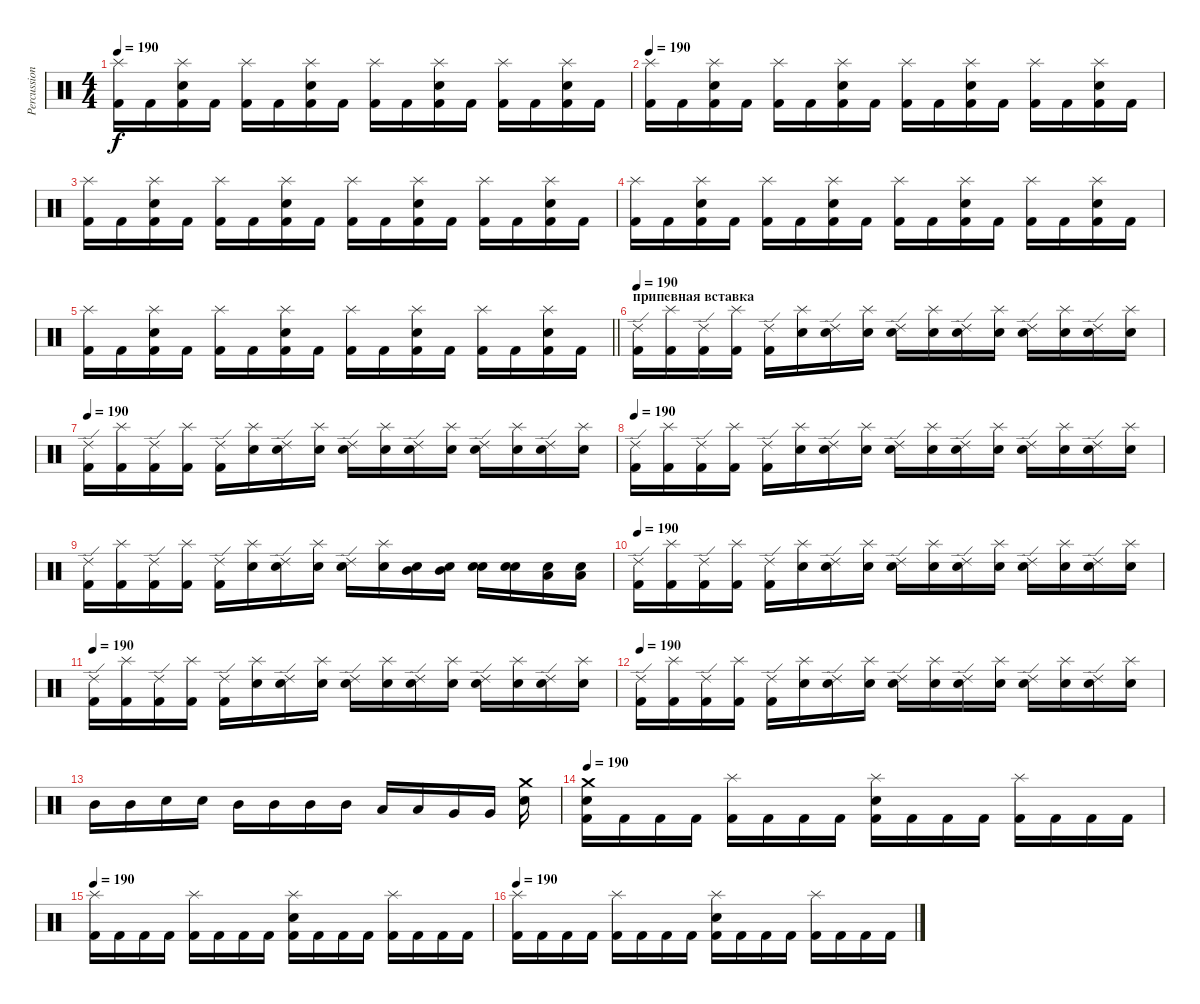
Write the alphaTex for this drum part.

\track ("Percussion" "Percussion") {instrument percussion}
\staff {score}
\articulation defaults
\ts (4 4)
\tempo 190
\clef neutral
\ks c
("Splash (hit)" "Kick (hit) 2").16{dy f} "Kick (hit) 2".16 ("Splash (hit)" "Kick (hit) 2" "Electric Snare (hit)").16 "Kick (hit) 2".16 ("Splash (hit)" "Kick (hit) 2").16 "Kick (hit) 2".16 ("Splash (hit)" "Kick (hit) 2" "Electric Snare (hit)").16 "Kick (hit) 2".16 ("Splash (hit)" "Kick (hit) 2").16 "Kick (hit) 2".16 ("Splash (hit)" "Kick (hit) 2" "Electric Snare (hit)").16 "Kick (hit) 2".16 ("Splash (hit)" "Kick (hit) 2").16 "Kick (hit) 2".16 ("Splash (hit)" "Kick (hit) 2" "Electric Snare (hit)").16 "Kick (hit) 2".16 |
\tempo 190
("Splash (hit)" "Kick (hit) 2").16 "Kick (hit) 2".16 ("Splash (hit)" "Kick (hit) 2" "Electric Snare (hit)").16 "Kick (hit) 2".16 ("Splash (hit)" "Kick (hit) 2").16 "Kick (hit) 2".16 ("Splash (hit)" "Kick (hit) 2" "Electric Snare (hit)").16 "Kick (hit) 2".16 ("Splash (hit)" "Kick (hit) 2").16 "Kick (hit) 2".16 ("Splash (hit)" "Kick (hit) 2" "Electric Snare (hit)").16 "Kick (hit) 2".16 ("Splash (hit)" "Kick (hit) 2").16 "Kick (hit) 2".16 ("Splash (hit)" "Kick (hit) 2" "Electric Snare (hit)").16 "Kick (hit) 2".16 |
("Splash (hit)" "Kick (hit) 2").16 "Kick (hit) 2".16 ("Splash (hit)" "Kick (hit) 2" "Electric Snare (hit)").16 "Kick (hit) 2".16 ("Splash (hit)" "Kick (hit) 2").16 "Kick (hit) 2".16 ("Splash (hit)" "Kick (hit) 2" "Electric Snare (hit)").16 "Kick (hit) 2".16 ("Splash (hit)" "Kick (hit) 2").16 "Kick (hit) 2".16 ("Splash (hit)" "Kick (hit) 2" "Electric Snare (hit)").16 "Kick (hit) 2".16 ("Splash (hit)" "Kick (hit) 2").16 "Kick (hit) 2".16 ("Splash (hit)" "Kick (hit) 2" "Electric Snare (hit)").16 "Kick (hit) 2".16 |
("Splash (hit)" "Kick (hit) 2").16 "Kick (hit) 2".16 ("Splash (hit)" "Kick (hit) 2" "Electric Snare (hit)").16 "Kick (hit) 2".16 ("Splash (hit)" "Kick (hit) 2").16 "Kick (hit) 2".16 ("Splash (hit)" "Kick (hit) 2" "Electric Snare (hit)").16 "Kick (hit) 2".16 ("Splash (hit)" "Kick (hit) 2").16 "Kick (hit) 2".16 ("Splash (hit)" "Kick (hit) 2" "Electric Snare (hit)").16 "Kick (hit) 2".16 ("Splash (hit)" "Kick (hit) 2").16 "Kick (hit) 2".16 ("Splash (hit)" "Kick (hit) 2" "Electric Snare (hit)").16 "Kick (hit) 2".16 |
\barLineRight lightlight
("Splash (hit)" "Kick (hit) 2").16 "Kick (hit) 2".16 ("Splash (hit)" "Kick (hit) 2" "Electric Snare (hit)").16 "Kick (hit) 2".16 ("Splash (hit)" "Kick (hit) 2").16 "Kick (hit) 2".16 ("Splash (hit)" "Kick (hit) 2" "Electric Snare (hit)").16 "Kick (hit) 2".16 ("Splash (hit)" "Kick (hit) 2").16 "Kick (hit) 2".16 ("Splash (hit)" "Kick (hit) 2" "Electric Snare (hit)").16 "Kick (hit) 2".16 ("Splash (hit)" "Kick (hit) 2").16 "Kick (hit) 2".16 ("Splash (hit)" "Kick (hit) 2" "Electric Snare (hit)").16 "Kick (hit) 2".16 |
\section ("" "припевная вставка")
\tempo 190
("Ride (edge) 2" "Kick (hit) 2").16 ("Splash (hit)" "Kick (hit) 2").16 ("Ride (edge) 2" "Kick (hit) 2").16 ("Splash (hit)" "Kick (hit) 2").16 ("Ride (edge) 2" "Kick (hit) 2").16 ("Splash (hit)" "Snare (hit)").16 ("Ride (edge) 2" "Snare (hit)").16 ("Splash (hit)" "Snare (hit)").16 ("Ride (edge) 2" "Electric Snare (hit)").16 ("Splash (hit)" "Snare (hit)").16 ("Ride (edge) 2" "Snare (hit)").16 ("Splash (hit)" "Snare (hit)").16 ("Ride (edge) 2" "Snare (hit)").16 ("Splash (hit)" "Snare (hit)").16 ("Ride (edge) 2" "Snare (hit)").16 ("Splash (hit)" "Snare (hit)").16 |
\tempo 190
("Ride (edge) 2" "Kick (hit) 2").16 ("Splash (hit)" "Kick (hit) 2").16 ("Ride (edge) 2" "Kick (hit) 2").16 ("Splash (hit)" "Kick (hit) 2").16 ("Ride (edge) 2" "Kick (hit) 2").16 ("Splash (hit)" "Snare (hit)").16 ("Ride (edge) 2" "Snare (hit)").16 ("Splash (hit)" "Snare (hit)").16 ("Ride (edge) 2" "Electric Snare (hit)").16 ("Splash (hit)" "Snare (hit)").16 ("Ride (edge) 2" "Snare (hit)").16 ("Splash (hit)" "Snare (hit)").16 ("Ride (edge) 2" "Snare (hit)").16 ("Splash (hit)" "Snare (hit)").16 ("Ride (edge) 2" "Snare (hit)").16 ("Splash (hit)" "Snare (hit)").16 |
\tempo 190
("Ride (edge) 2" "Kick (hit) 2").16 ("Splash (hit)" "Kick (hit) 2").16 ("Ride (edge) 2" "Kick (hit) 2").16 ("Splash (hit)" "Kick (hit) 2").16 ("Ride (edge) 2" "Kick (hit) 2").16 ("Splash (hit)" "Snare (hit)").16 ("Ride (edge) 2" "Snare (hit)").16 ("Splash (hit)" "Snare (hit)").16 ("Ride (edge) 2" "Electric Snare (hit)").16 ("Splash (hit)" "Snare (hit)").16 ("Ride (edge) 2" "Snare (hit)").16 ("Splash (hit)" "Snare (hit)").16 ("Ride (edge) 2" "Snare (hit)").16 ("Splash (hit)" "Snare (hit)").16 ("Ride (edge) 2" "Snare (hit)").16 ("Splash (hit)" "Snare (hit)").16 |
("Ride (edge) 2" "Kick (hit) 2").16 ("Splash (hit)" "Kick (hit) 2").16 ("Ride (edge) 2" "Kick (hit) 2").16 ("Splash (hit)" "Kick (hit) 2").16 ("Ride (edge) 2" "Kick (hit) 2").16 ("Splash (hit)" "Snare (hit)").16 ("Ride (edge) 2" "Snare (hit)").16 ("Splash (hit)" "Snare (hit)").16 ("Ride (edge) 2" "Electric Snare (hit)").16 ("Splash (hit)" "Snare (hit)").16 ("Mid Tom (hit)" "Snare (hit)").16 ("Mid Tom (hit)" "Snare (hit)").16 ("Electric Snare (hit)" "Snare (hit)").16 ("Electric Snare (hit)" "Snare (hit)").16 ("Low Tom (hit)" "Snare (hit)").16 ("Low Tom (hit)" "Snare (hit)").16 |
\tempo 190
("Ride (edge) 2" "Kick (hit) 2").16 ("Splash (hit)" "Kick (hit) 2").16 ("Ride (edge) 2" "Kick (hit) 2").16 ("Splash (hit)" "Kick (hit) 2").16 ("Ride (edge) 2" "Kick (hit) 2").16 ("Splash (hit)" "Snare (hit)").16 ("Ride (edge) 2" "Snare (hit)").16 ("Splash (hit)" "Snare (hit)").16 ("Ride (edge) 2" "Electric Snare (hit)").16 ("Splash (hit)" "Snare (hit)").16 ("Ride (edge) 2" "Snare (hit)").16 ("Splash (hit)" "Snare (hit)").16 ("Ride (edge) 2" "Snare (hit)").16 ("Splash (hit)" "Snare (hit)").16 ("Ride (edge) 2" "Snare (hit)").16 ("Splash (hit)" "Snare (hit)").16 |
\tempo 190
("Ride (edge) 2" "Kick (hit) 2").16 ("Splash (hit)" "Kick (hit) 2").16 ("Ride (edge) 2" "Kick (hit) 2").16 ("Splash (hit)" "Kick (hit) 2").16 ("Ride (edge) 2" "Kick (hit) 2").16 ("Splash (hit)" "Snare (hit)").16 ("Ride (edge) 2" "Snare (hit)").16 ("Splash (hit)" "Snare (hit)").16 ("Ride (edge) 2" "Electric Snare (hit)").16 ("Splash (hit)" "Snare (hit)").16 ("Ride (edge) 2" "Snare (hit)").16 ("Splash (hit)" "Snare (hit)").16 ("Ride (edge) 2" "Snare (hit)").16 ("Splash (hit)" "Snare (hit)").16 ("Ride (edge) 2" "Snare (hit)").16 ("Splash (hit)" "Snare (hit)").16 |
\tempo 190
("Ride (edge) 2" "Kick (hit) 2").16 ("Splash (hit)" "Kick (hit) 2").16 ("Ride (edge) 2" "Kick (hit) 2").16 ("Splash (hit)" "Kick (hit) 2").16 ("Ride (edge) 2" "Kick (hit) 2").16 ("Splash (hit)" "Snare (hit)").16 ("Ride (edge) 2" "Snare (hit)").16 ("Splash (hit)" "Snare (hit)").16 ("Ride (edge) 2" "Electric Snare (hit)").16 ("Splash (hit)" "Snare (hit)").16 ("Ride (edge) 2" "Snare (hit)").16 ("Splash (hit)" "Snare (hit)").16 ("Ride (edge) 2" "Snare (hit)").16 ("Splash (hit)" "Snare (hit)").16 ("Ride (edge) 2" "Snare (hit)").16 ("Splash (hit)" "Snare (hit)").16 |
"Mid Tom (hit)".16 "Mid Tom (hit)".16 "Electric Snare (hit)".16 "Electric Snare (hit)".16 "Mid Tom (hit)".16 "Mid Tom (hit)".16 "Mid Tom (hit)".16 "Mid Tom (hit)".16 "Low Tom (hit)".16 "Low Tom (hit)".16 "Very Low Tom (hit)".16 "Very Low Tom (hit)".16 ("Crash medium (hit)" "Electric Snare (hit)").16 |
\tempo 190
("Crash medium (hit)" "Kick (hit) 2" "Electric Snare (hit)").16 "Kick (hit) 2".16 "Kick (hit) 2".16 "Kick (hit) 2".16 ("Splash (hit)" "Kick (hit) 2").16 "Kick (hit) 2".16 "Kick (hit) 2".16 "Kick (hit) 2".16 ("Splash (hit)" "Kick (hit) 2" "Electric Snare (hit)").16 "Kick (hit) 2".16 "Kick (hit) 2".16 "Kick (hit) 2".16 ("Splash (hit)" "Kick (hit) 2").16 "Kick (hit) 2".16 "Kick (hit) 2".16 "Kick (hit) 2".16 |
\tempo 190
("Splash (hit)" "Kick (hit) 2").16 "Kick (hit) 2".16 "Kick (hit) 2".16 "Kick (hit) 2".16 ("Splash (hit)" "Kick (hit) 2").16 "Kick (hit) 2".16 "Kick (hit) 2".16 "Kick (hit) 2".16 ("Splash (hit)" "Kick (hit) 2" "Electric Snare (hit)").16 "Kick (hit) 2".16 "Kick (hit) 2".16 "Kick (hit) 2".16 ("Splash (hit)" "Kick (hit) 2").16 "Kick (hit) 2".16 "Kick (hit) 2".16 "Kick (hit) 2".16 |
\tempo 190
("Splash (hit)" "Kick (hit) 2").16 "Kick (hit) 2".16 "Kick (hit) 2".16 "Kick (hit) 2".16 ("Splash (hit)" "Kick (hit) 2").16 "Kick (hit) 2".16 "Kick (hit) 2".16 "Kick (hit) 2".16 ("Splash (hit)" "Kick (hit) 2" "Electric Snare (hit)").16 "Kick (hit) 2".16 "Kick (hit) 2".16 "Kick (hit) 2".16 ("Splash (hit)" "Kick (hit) 2").16 "Kick (hit) 2".16 "Kick (hit) 2".16 "Kick (hit) 2".16
